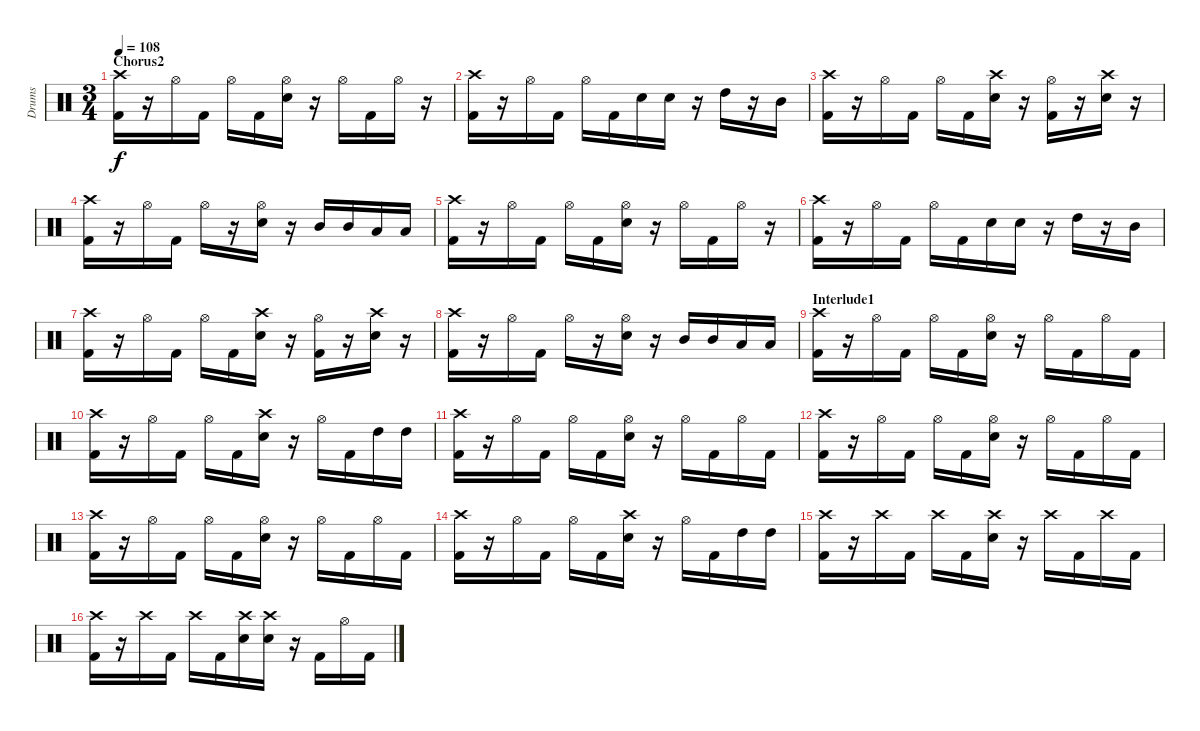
\track ("Drums" "Drums") {instrument percussion}
\staff {score}
\articulation defaults
\ts (3 4)
\section ("" "Chorus2")
\tempo 108
\clef neutral
\ks c
("Crash high (hit)" "Kick (hit) 2").16{dy f} r.16 "Hi-Hat (open)".16 "Kick (hit) 2".16 "Hi-Hat (open)".16 "Kick (hit) 2".16 ("Hi-Hat (open)" "Electric Snare (hit)").16 r.16 "Hi-Hat (open)".16 "Kick (hit) 2".16 "Hi-Hat (open)".16 r.16 |
("Crash high (hit)" "Kick (hit) 2").16 r.16 "Hi-Hat (open)".16 "Kick (hit) 2".16 "Hi-Hat (open)".16 "Kick (hit) 2".16 "Electric Snare (hit)".16 "Electric Snare (hit)".16 r.16 "High Tom (hit)".16 r.16 "Mid Tom (hit)".16 |
("Crash high (hit)" "Kick (hit) 2").16 r.16 "Hi-Hat (open)".16 "Kick (hit) 2".16 "Hi-Hat (open)".16 "Kick (hit) 2".16 ("Crash high (hit)" "Electric Snare (hit)").16 r.16 ("Hi-Hat (open)" "Kick (hit) 2").16 r.16 ("Crash high (hit)" "Electric Snare (hit)").16 r.16 |
("Crash high (hit)" "Kick (hit) 2").16 r.16 "Hi-Hat (open)".16 "Kick (hit) 2".16 "Hi-Hat (open)".16 r.16 ("Hi-Hat (open)" "Electric Snare (hit)").16 r.16 "Mid Tom (hit)".16 "Mid Tom (hit)".16 "Low Tom (hit)".16 "Low Tom (hit)".16 |
("Crash high (hit)" "Kick (hit) 2").16 r.16 "Hi-Hat (open)".16 "Kick (hit) 2".16 "Hi-Hat (open)".16 "Kick (hit) 2".16 ("Hi-Hat (open)" "Electric Snare (hit)").16 r.16 "Hi-Hat (open)".16 "Kick (hit) 2".16 "Hi-Hat (open)".16 r.16 |
("Crash high (hit)" "Kick (hit) 2").16 r.16 "Hi-Hat (open)".16 "Kick (hit) 2".16 "Hi-Hat (open)".16 "Kick (hit) 2".16 "Electric Snare (hit)".16 "Electric Snare (hit)".16 r.16 "High Tom (hit)".16 r.16 "Mid Tom (hit)".16 |
("Crash high (hit)" "Kick (hit) 2").16 r.16 "Hi-Hat (open)".16 "Kick (hit) 2".16 "Hi-Hat (open)".16 "Kick (hit) 2".16 ("Crash high (hit)" "Electric Snare (hit)").16 r.16 ("Hi-Hat (open)" "Kick (hit) 2").16 r.16 ("Crash high (hit)" "Electric Snare (hit)").16 r.16 |
("Crash high (hit)" "Kick (hit) 2").16 r.16 "Hi-Hat (open)".16 "Kick (hit) 2".16 "Hi-Hat (open)".16 r.16 ("Hi-Hat (open)" "Electric Snare (hit)").16 r.16 "Mid Tom (hit)".16 "Mid Tom (hit)".16 "Low Tom (hit)".16 "Low Tom (hit)".16 |
\section ("" "Interlude1")
("Crash high (hit)" "Kick (hit) 2").16 r.16 "Hi-Hat (open)".16 "Kick (hit) 2".16 "Hi-Hat (open)".16 "Kick (hit) 2".16 ("Hi-Hat (open)" "Electric Snare (hit)").16 r.16 "Hi-Hat (open)".16 "Kick (hit) 2".16 "Hi-Hat (open)".16 "Kick (hit) 2".16 |
("Crash high (hit)" "Kick (hit) 2").16 r.16 "Hi-Hat (open)".16 "Kick (hit) 2".16 "Hi-Hat (open)".16 "Kick (hit) 2".16 ("Crash high (hit)" "Electric Snare (hit)").16 r.16 "Hi-Hat (open)".16 "Kick (hit) 2".16 "High Tom (hit)".16 "High Tom (hit)".16 |
("Crash high (hit)" "Kick (hit) 2").16 r.16 "Hi-Hat (open)".16 "Kick (hit) 2".16 "Hi-Hat (open)".16 "Kick (hit) 2".16 ("Hi-Hat (open)" "Electric Snare (hit)").16 r.16 "Hi-Hat (open)".16 "Kick (hit) 2".16 "Hi-Hat (open)".16 "Kick (hit) 2".16 |
("Crash high (hit)" "Kick (hit) 2").16 r.16 "Hi-Hat (open)".16 "Kick (hit) 2".16 "Hi-Hat (open)".16 "Kick (hit) 2".16 ("Hi-Hat (open)" "Electric Snare (hit)").16 r.16 "Hi-Hat (open)".16 "Kick (hit) 2".16 "Hi-Hat (open)".16 "Kick (hit) 2".16 |
("Crash high (hit)" "Kick (hit) 2").16 r.16 "Hi-Hat (open)".16 "Kick (hit) 2".16 "Hi-Hat (open)".16 "Kick (hit) 2".16 ("Hi-Hat (open)" "Electric Snare (hit)").16 r.16 "Hi-Hat (open)".16 "Kick (hit) 2".16 "Hi-Hat (open)".16 "Kick (hit) 2".16 |
("Crash high (hit)" "Kick (hit) 2").16 r.16 "Hi-Hat (open)".16 "Kick (hit) 2".16 "Hi-Hat (open)".16 "Kick (hit) 2".16 ("Crash high (hit)" "Electric Snare (hit)").16 r.16 "Hi-Hat (open)".16 "Kick (hit) 2".16 "High Tom (hit)".16 "High Tom (hit)".16 |
("Crash high (hit)" "Kick (hit) 2").16 r.16 "Crash high (hit)".16 "Kick (hit) 2".16 "Crash high (hit)".16 "Kick (hit) 2".16 ("Crash high (hit)" "Electric Snare (hit)").16 r.16 "Crash high (hit)".16 "Kick (hit) 2".16 "Crash high (hit)".16 "Kick (hit) 2".16 |
("Crash high (hit)" "Kick (hit) 2").16 r.16 "Crash high (hit)".16 "Kick (hit) 2".16 "Crash high (hit)".16 "Kick (hit) 2".16 ("Crash high (hit)" "Electric Snare (hit)").16 ("Crash high (hit)" "Electric Snare (hit)").16 r.16 "Kick (hit) 2".16 "Hi-Hat (open)".16 "Kick (hit) 2".16
